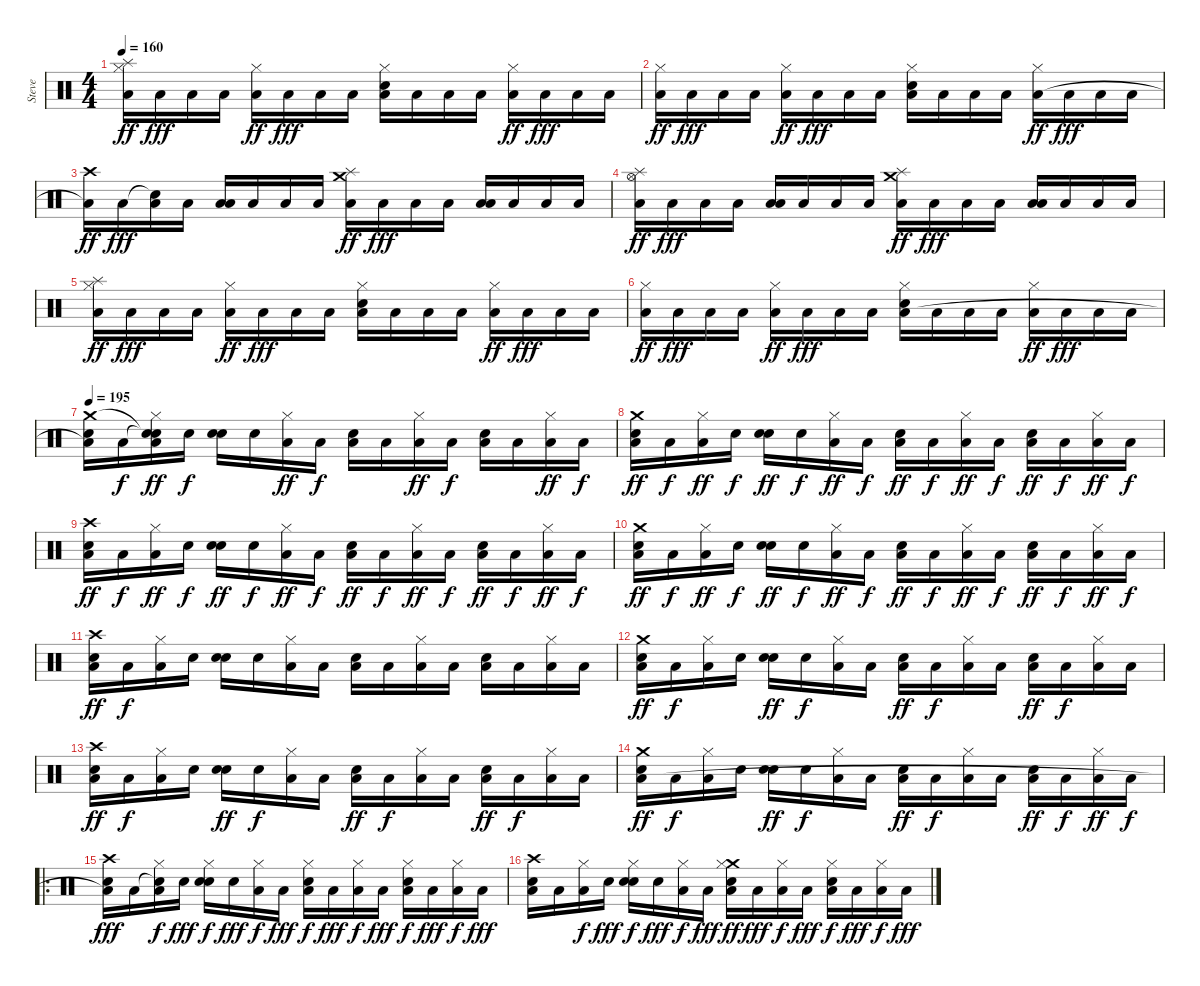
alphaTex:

\track ("Steve" "Steve") {instrument percussion}
\staff {score}
\articulation defaults
\ts (4 4)
\tempo 160
\clef neutral
\ks c
("Splash (hit)" "Hi-Hat (closed)" "Low Floor Tom (hit)").16{dy ff} "Low Floor Tom (hit)".16{dy fff} "Low Floor Tom (hit)".16 "Low Floor Tom (hit)".16 ("Hi-Hat (closed)" "Low Floor Tom (hit)").16{dy ff} "Low Floor Tom (hit)".16{dy fff} "Low Floor Tom (hit)".16 "Low Floor Tom (hit)".16 ("Electric Snare (hit)" "Hi-Hat (closed)" "Low Floor Tom (hit)").16 "Low Floor Tom (hit)".16 "Low Floor Tom (hit)".16 "Low Floor Tom (hit)".16 ("Hi-Hat (closed)" "Low Floor Tom (hit)").16{dy ff} "Low Floor Tom (hit)".16{dy fff} "Low Floor Tom (hit)".16 "Low Floor Tom (hit)".16 |
("Hi-Hat (closed)" "Low Floor Tom (hit)").16{dy ff} "Low Floor Tom (hit)".16{dy fff} "Low Floor Tom (hit)".16 "Low Floor Tom (hit)".16 ("Hi-Hat (closed)" "Low Floor Tom (hit)").16{dy ff} "Low Floor Tom (hit)".16{dy fff} "Low Floor Tom (hit)".16 "Low Floor Tom (hit)".16 ("Electric Snare (hit)" "Hi-Hat (closed)" "Low Floor Tom (hit)").16 "Low Floor Tom (hit)".16 "Low Floor Tom (hit)".16 "Low Floor Tom (hit)".16 ("Hi-Hat (closed)" "Low Floor Tom (hit)").16{dy ff} "Low Floor Tom (hit)".16{dy fff} "Low Floor Tom (hit)".16 "Low Floor Tom (hit)".16 |
("Crash high (hit)" "Low Floor Tom (hit)"{t}).16{dy ff} "Low Floor Tom (hit)".16{dy fff} ("Snare (hit)"{t} "Low Floor Tom (hit)").16 "Low Floor Tom (hit)".16 ("Low Tom (hit)" "Low Floor Tom (hit)").16 "Low Floor Tom (hit)".16 "Low Floor Tom (hit)".16 "Low Floor Tom (hit)".16 ("Crash medium (hit)" "Splash (hit)" "Low Floor Tom (hit)").16{dy ff} "Low Floor Tom (hit)".16{dy fff} "Low Floor Tom (hit)".16 "Low Floor Tom (hit)".16 ("Low Tom (hit)" "Low Floor Tom (hit)").16 "Low Floor Tom (hit)".16 "Low Floor Tom (hit)".16 "Low Floor Tom (hit)".16 |
("Splash (hit)" "Hi-Hat (open)" "Low Floor Tom (hit)").16{dy ff} "Low Floor Tom (hit)".16{dy fff} "Low Floor Tom (hit)".16 "Low Floor Tom (hit)".16 ("Low Tom (hit)" "Low Floor Tom (hit)").16 "Low Floor Tom (hit)".16 "Low Floor Tom (hit)".16 "Low Floor Tom (hit)".16 ("Crash medium (hit)" "Splash (hit)" "Low Floor Tom (hit)").16{dy ff} "Low Floor Tom (hit)".16{dy fff} "Low Floor Tom (hit)".16 "Low Floor Tom (hit)".16 ("Low Tom (hit)" "Low Floor Tom (hit)").16 "Low Floor Tom (hit)".16 "Low Floor Tom (hit)".16 "Low Floor Tom (hit)".16 |
("Splash (hit)" "Hi-Hat (closed)" "Low Floor Tom (hit)").16{dy ff} "Low Floor Tom (hit)".16{dy fff} "Low Floor Tom (hit)".16 "Low Floor Tom (hit)".16 ("Hi-Hat (closed)" "Low Floor Tom (hit)").16{dy ff} "Low Floor Tom (hit)".16{dy fff} "Low Floor Tom (hit)".16 "Low Floor Tom (hit)".16 ("Electric Snare (hit)" "Hi-Hat (closed)" "Low Floor Tom (hit)").16 "Low Floor Tom (hit)".16 "Low Floor Tom (hit)".16 "Low Floor Tom (hit)".16 ("Hi-Hat (closed)" "Low Floor Tom (hit)").16{dy ff} "Low Floor Tom (hit)".16{dy fff} "Low Floor Tom (hit)".16 "Low Floor Tom (hit)".16 |
("Hi-Hat (closed)" "Low Floor Tom (hit)").16{dy ff} "Low Floor Tom (hit)".16{dy fff} "Low Floor Tom (hit)".16 "Low Floor Tom (hit)".16 ("Hi-Hat (closed)" "Low Floor Tom (hit)").16{dy ff} "Low Floor Tom (hit)".16{dy fff} "Low Floor Tom (hit)".16 "Low Floor Tom (hit)".16 ("Electric Snare (hit)" "Hi-Hat (closed)" "Low Floor Tom (hit)").16 "Low Floor Tom (hit)".16 "Low Floor Tom (hit)".16 "Low Floor Tom (hit)".16 ("Hi-Hat (closed)" "Low Floor Tom (hit)").16{dy ff} "Low Floor Tom (hit)".16{dy fff} "Low Floor Tom (hit)".16 "Low Floor Tom (hit)".16 |
\tempo 195
("Electric Snare (hit)" "Crash medium (hit)" "Low Floor Tom (hit)"{t}).16 "Low Floor Tom (hit)".16{dy f} ("Snare (hit)"{t} "Snare (hit)"{t} "Hi-Hat (closed)" "Low Floor Tom (hit)").16{dy ff} "Snare (hit)".16{dy f} ("Electric Snare (hit)" "Snare (hit)").16 "Snare (hit)".16 ("Hi-Hat (closed)" "Low Floor Tom (hit)").16{dy ff} "Low Floor Tom (hit)".16{dy f} ("Electric Snare (hit)" "Low Floor Tom (hit)").16 "Low Floor Tom (hit)".16 ("Hi-Hat (closed)" "Low Floor Tom (hit)").16{dy ff} "Low Floor Tom (hit)".16{dy f} ("Electric Snare (hit)" "Low Floor Tom (hit)").16 "Low Floor Tom (hit)".16 ("Hi-Hat (closed)" "Low Floor Tom (hit)").16{dy ff} "Low Floor Tom (hit)".16{dy f} |
("Electric Snare (hit)" "Crash medium (hit)" "Low Floor Tom (hit)").16{dy ff} "Low Floor Tom (hit)".16{dy f} ("Hi-Hat (closed)" "Low Floor Tom (hit)").16{dy ff} "Snare (hit)".16{dy f} ("Electric Snare (hit)" "Snare (hit)").16{dy ff} "Snare (hit)".16{dy f} ("Hi-Hat (closed)" "Low Floor Tom (hit)").16{dy ff} "Low Floor Tom (hit)".16{dy f} ("Electric Snare (hit)" "Low Floor Tom (hit)").16{dy ff} "Low Floor Tom (hit)".16{dy f} ("Hi-Hat (closed)" "Low Floor Tom (hit)").16{dy ff} "Low Floor Tom (hit)".16{dy f} ("Electric Snare (hit)" "Low Floor Tom (hit)").16{dy ff} "Low Floor Tom (hit)".16{dy f} ("Hi-Hat (closed)" "Low Floor Tom (hit)").16{dy ff} "Low Floor Tom (hit)".16{dy f} |
("Electric Snare (hit)" "Crash high (hit)" "Low Floor Tom (hit)").16{dy ff} "Low Floor Tom (hit)".16{dy f} ("Hi-Hat (closed)" "Low Floor Tom (hit)").16{dy ff} "Snare (hit)".16{dy f} ("Electric Snare (hit)" "Snare (hit)").16{dy ff} "Snare (hit)".16{dy f} ("Hi-Hat (closed)" "Low Floor Tom (hit)").16{dy ff} "Low Floor Tom (hit)".16{dy f} ("Electric Snare (hit)" "Low Floor Tom (hit)").16{dy ff} "Low Floor Tom (hit)".16{dy f} ("Hi-Hat (closed)" "Low Floor Tom (hit)").16{dy ff} "Low Floor Tom (hit)".16{dy f} ("Electric Snare (hit)" "Low Floor Tom (hit)").16{dy ff} "Low Floor Tom (hit)".16{dy f} ("Hi-Hat (closed)" "Low Floor Tom (hit)").16{dy ff} "Low Floor Tom (hit)".16{dy f} |
("Electric Snare (hit)" "Crash medium (hit)" "Low Floor Tom (hit)").16{dy ff} "Low Floor Tom (hit)".16{dy f} ("Hi-Hat (closed)" "Low Floor Tom (hit)").16{dy ff} "Snare (hit)".16{dy f} ("Electric Snare (hit)" "Snare (hit)").16{dy ff} "Snare (hit)".16{dy f} ("Hi-Hat (closed)" "Low Floor Tom (hit)").16{dy ff} "Low Floor Tom (hit)".16{dy f} ("Electric Snare (hit)" "Low Floor Tom (hit)").16{dy ff} "Low Floor Tom (hit)".16{dy f} ("Hi-Hat (closed)" "Low Floor Tom (hit)").16{dy ff} "Low Floor Tom (hit)".16{dy f} ("Electric Snare (hit)" "Low Floor Tom (hit)").16{dy ff} "Low Floor Tom (hit)".16{dy f} ("Hi-Hat (closed)" "Low Floor Tom (hit)").16{dy ff} "Low Floor Tom (hit)".16{dy f} |
("Electric Snare (hit)" "Crash high (hit)" "Low Floor Tom (hit)").16{dy ff} "Low Floor Tom (hit)".16{dy f} ("Hi-Hat (closed)" "Low Floor Tom (hit)").16 "Snare (hit)".16 ("Electric Snare (hit)" "Snare (hit)").16 "Snare (hit)".16 ("Hi-Hat (closed)" "Low Floor Tom (hit)").16 "Low Floor Tom (hit)".16 ("Electric Snare (hit)" "Low Floor Tom (hit)").16 "Low Floor Tom (hit)".16 ("Hi-Hat (closed)" "Low Floor Tom (hit)").16 "Low Floor Tom (hit)".16 ("Electric Snare (hit)" "Low Floor Tom (hit)").16 "Low Floor Tom (hit)".16 ("Hi-Hat (closed)" "Low Floor Tom (hit)").16 "Low Floor Tom (hit)".16 |
("Electric Snare (hit)" "Crash medium (hit)" "Low Floor Tom (hit)").16{dy ff} "Low Floor Tom (hit)".16{dy f} ("Hi-Hat (closed)" "Low Floor Tom (hit)").16 "Snare (hit)".16 ("Electric Snare (hit)" "Snare (hit)").16{dy ff} "Snare (hit)".16{dy f} ("Hi-Hat (closed)" "Low Floor Tom (hit)").16 "Low Floor Tom (hit)".16 ("Electric Snare (hit)" "Low Floor Tom (hit)").16{dy ff} "Low Floor Tom (hit)".16{dy f} ("Hi-Hat (closed)" "Low Floor Tom (hit)").16 "Low Floor Tom (hit)".16 ("Electric Snare (hit)" "Low Floor Tom (hit)").16{dy ff} "Low Floor Tom (hit)".16{dy f} ("Hi-Hat (closed)" "Low Floor Tom (hit)").16 "Low Floor Tom (hit)".16 |
("Electric Snare (hit)" "Crash high (hit)" "Low Floor Tom (hit)").16{dy ff} "Low Floor Tom (hit)".16{dy f} ("Hi-Hat (closed)" "Low Floor Tom (hit)").16 "Snare (hit)".16 ("Electric Snare (hit)" "Snare (hit)").16{dy ff} "Snare (hit)".16{dy f} ("Hi-Hat (closed)" "Low Floor Tom (hit)").16 "Low Floor Tom (hit)".16 ("Electric Snare (hit)" "Low Floor Tom (hit)").16{dy ff} "Low Floor Tom (hit)".16{dy f} ("Hi-Hat (closed)" "Low Floor Tom (hit)").16 "Low Floor Tom (hit)".16 ("Electric Snare (hit)" "Low Floor Tom (hit)").16{dy ff} "Low Floor Tom (hit)".16{dy f} ("Hi-Hat (closed)" "Low Floor Tom (hit)").16 "Low Floor Tom (hit)".16 |
("Electric Snare (hit)" "Crash medium (hit)" "Low Floor Tom (hit)").16{dy ff} "Low Floor Tom (hit)".16{dy f} ("Hi-Hat (closed)" "Low Floor Tom (hit)").16 "Snare (hit)".16 ("Electric Snare (hit)" "Snare (hit)").16{dy ff} "Snare (hit)".16{dy f} ("Hi-Hat (closed)" "Low Floor Tom (hit)").16 "Low Floor Tom (hit)".16 ("Electric Snare (hit)" "Low Floor Tom (hit)").16{dy ff} "Low Floor Tom (hit)".16{dy f} ("Hi-Hat (closed)" "Low Floor Tom (hit)").16 "Low Floor Tom (hit)".16 ("Electric Snare (hit)" "Low Floor Tom (hit)").16{dy ff} "Low Floor Tom (hit)".16{dy f} ("Hi-Hat (closed)" "Low Floor Tom (hit)").16{dy ff} "Low Floor Tom (hit)".16{dy f} |
\ro
("Electric Snare (hit)" "Crash high (hit)" "Low Floor Tom (hit)"{t}).16{dy fff} "Low Floor Tom (hit)".16 ("Snare (hit)"{t} "Hi-Hat (closed)" "Low Floor Tom (hit)").16{dy f} "Snare (hit)".16{dy fff} ("Electric Snare (hit)" "Hi-Hat (closed)" "Snare (hit)").16{dy f} "Snare (hit)".16{dy fff} ("Hi-Hat (closed)" "Low Floor Tom (hit)").16{dy f} "Low Floor Tom (hit)".16{dy fff} ("Electric Snare (hit)" "Hi-Hat (closed)" "Low Floor Tom (hit)").16{dy f} "Low Floor Tom (hit)".16{dy fff} ("Hi-Hat (closed)" "Low Floor Tom (hit)").16{dy f} "Low Floor Tom (hit)".16{dy fff} ("Electric Snare (hit)" "Hi-Hat (closed)" "Low Floor Tom (hit)").16{dy f} "Low Floor Tom (hit)".16{dy fff} ("Hi-Hat (closed)" "Low Floor Tom (hit)").16{dy f} "Low Floor Tom (hit)".16{dy fff} |
("Electric Snare (hit)" "Crash high (hit)" "Low Floor Tom (hit)").16 "Low Floor Tom (hit)".16 ("Hi-Hat (closed)" "Low Floor Tom (hit)").16{dy f} "Snare (hit)".16{dy fff} ("Electric Snare (hit)" "Hi-Hat (closed)" "Snare (hit)").16{dy f} "Snare (hit)".16{dy fff} ("Hi-Hat (closed)" "Low Floor Tom (hit)").16{dy f} "Low Floor Tom (hit)".16{dy fff} ("Electric Snare (hit)" "Crash medium (hit)" "Hi-Hat (closed)" "Low Floor Tom (hit)").16{dy ff} "Low Floor Tom (hit)".16{dy fff} ("Hi-Hat (closed)" "Low Floor Tom (hit)").16{dy f} "Low Floor Tom (hit)".16{dy fff} ("Electric Snare (hit)" "Hi-Hat (closed)" "Low Floor Tom (hit)").16{dy f} "Low Floor Tom (hit)".16{dy fff} ("Hi-Hat (closed)" "Low Floor Tom (hit)").16{dy f} "Low Floor Tom (hit)".16{dy fff}
